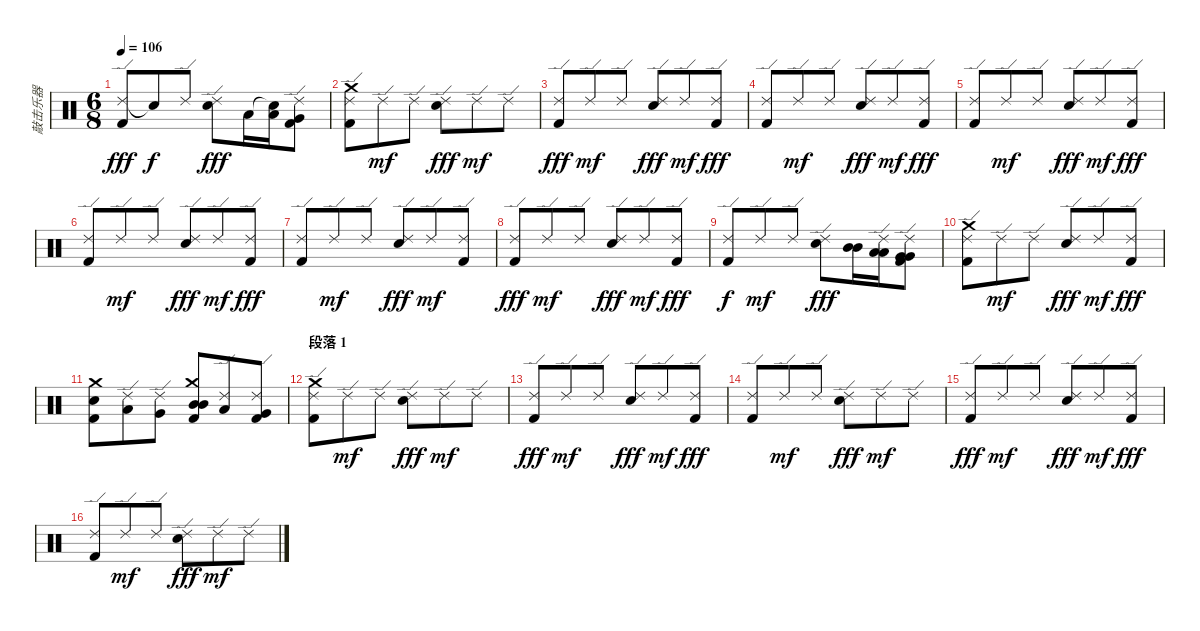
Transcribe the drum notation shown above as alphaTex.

\track ("敲击乐器" "敲击乐器") {instrument percussion}
\staff {score}
\articulation defaults
\ts (6 8)
\tempo 106
\clef neutral
\ks c
("Ride (edge) 2" "Kick (hit) 2").8{dy fff} "Snare (hit)"{t}.8{dy f} "Ride (edge) 2".8 ("Ride (edge) 2" "Snare (hit) 2").8{dy fff} "Low Tom (hit)".16 ("Snare (hit)"{t} "Low Tom (hit)").16 ("Ride (edge) 2" "Very Low Tom (hit)" "Kick (hit) 2").8 |
("Ride (edge) 2" "Crash medium (hit)" "Kick (hit) 2").8 "Ride (edge) 2".8{dy mf} "Ride (edge) 2".8 ("Ride (edge) 2" "Snare (hit) 2").8{dy fff} "Ride (edge) 2".8{dy mf} "Ride (edge) 2".8 |
("Ride (edge) 2" "Kick (hit) 2").8{dy fff} "Ride (edge) 2".8{dy mf} "Ride (edge) 2".8 ("Ride (edge) 2" "Snare (hit) 2").8{dy fff} "Ride (edge) 2".8{dy mf} ("Ride (edge) 2" "Kick (hit) 2").8{dy fff} |
("Ride (edge) 2" "Kick (hit) 2").8 "Ride (edge) 2".8{dy mf} "Ride (edge) 2".8 ("Ride (edge) 2" "Snare (hit) 2").8{dy fff} "Ride (edge) 2".8{dy mf} ("Ride (edge) 2" "Kick (hit) 2").8{dy fff} |
("Ride (edge) 2" "Kick (hit) 2").8 "Ride (edge) 2".8{dy mf} "Ride (edge) 2".8 ("Ride (edge) 2" "Snare (hit) 2").8{dy fff} "Ride (edge) 2".8{dy mf} ("Ride (edge) 2" "Kick (hit) 2").8{dy fff} |
("Ride (edge) 2" "Kick (hit) 2").8 "Ride (edge) 2".8{dy mf} "Ride (edge) 2".8 ("Ride (edge) 2" "Snare (hit) 2").8{dy fff} "Ride (edge) 2".8{dy mf} ("Ride (edge) 2" "Kick (hit) 2").8{dy fff} |
("Ride (edge) 2" "Kick (hit) 2").8 "Ride (edge) 2".8{dy mf} "Ride (edge) 2".8 ("Ride (edge) 2" "Snare (hit) 2").8{dy fff} "Ride (edge) 2".8{dy mf} ("Ride (edge) 2" "Kick (hit) 2").8 |
("Ride (edge) 2" "Kick (hit) 2").8{dy fff} "Ride (edge) 2".8{dy mf} "Ride (edge) 2".8 ("Ride (edge) 2" "Snare (hit) 2").8{dy fff} "Ride (edge) 2".8{dy mf} ("Ride (edge) 2" "Kick (hit) 2").8{dy fff} |
("Ride (edge) 2" "Kick (hit) 2").8{dy f} "Ride (edge) 2".8{dy mf} "Ride (edge) 2".8 ("Ride (edge) 2" "Snare (hit) 2").8{dy fff} ("Mid Tom (hit)" "Mid Tom (hit)").16 ("Ride (edge) 2" "Low Tom (hit)" "Low Tom (hit)").16 ("Ride (edge) 2" "Very Low Tom (hit)" "Very Low Tom (hit)" "Kick (hit) 2").8 |
("Ride (edge) 2" "Crash medium (hit)" "Kick (hit) 2").8 "Ride (edge) 2".8{dy mf} "Ride (edge) 2".8 ("Ride (edge) 2" "Snare (hit) 2").8{dy fff} "Ride (edge) 2".8{dy mf} ("Ride (edge) 2" "Kick (hit) 2").8{dy fff} |
("Crash medium (hit)" "Snare (hit) 2" "Kick (hit) 2").8 ("Ride (edge) 2" "Low Tom (hit)").8 ("Ride (edge) 2" "Very Low Tom (hit)").8 ("Crash medium (hit)" "Mid Tom (hit)" "Mid Tom (hit)" "Kick (hit) 2").8 ("Ride (edge) 2" "Low Tom (hit)").8 ("Ride (edge) 2" "Very Low Tom (hit)" "Kick (hit) 2").8 |
\section ("" "段落 1")
("Ride (edge) 2" "Crash medium (hit)" "Kick (hit) 2").8 "Ride (edge) 2".8{dy mf} "Ride (edge) 2".8 ("Ride (edge) 2" "Snare (hit) 2").8{dy fff} "Ride (edge) 2".8{dy mf} "Ride (edge) 2".8 |
("Ride (edge) 2" "Kick (hit) 2").8{dy fff} "Ride (edge) 2".8{dy mf} "Ride (edge) 2".8 ("Ride (edge) 2" "Snare (hit) 2").8{dy fff} "Ride (edge) 2".8{dy mf} ("Ride (edge) 2" "Kick (hit) 2").8{dy fff} |
("Ride (edge) 2" "Kick (hit) 2").8 "Ride (edge) 2".8{dy mf} "Ride (edge) 2".8 ("Ride (edge) 2" "Snare (hit) 2").8{dy fff} "Ride (edge) 2".8{dy mf} "Ride (edge) 2".8 |
("Ride (edge) 2" "Kick (hit) 2").8{dy fff} "Ride (edge) 2".8{dy mf} "Ride (edge) 2".8 ("Ride (edge) 2" "Snare (hit) 2").8{dy fff} "Ride (edge) 2".8{dy mf} ("Ride (edge) 2" "Kick (hit) 2").8{dy fff} |
("Ride (edge) 2" "Kick (hit) 2").8 "Ride (edge) 2".8{dy mf} "Ride (edge) 2".8 ("Ride (edge) 2" "Snare (hit) 2").8{dy fff} "Ride (edge) 2".8{dy mf} "Ride (edge) 2".8
